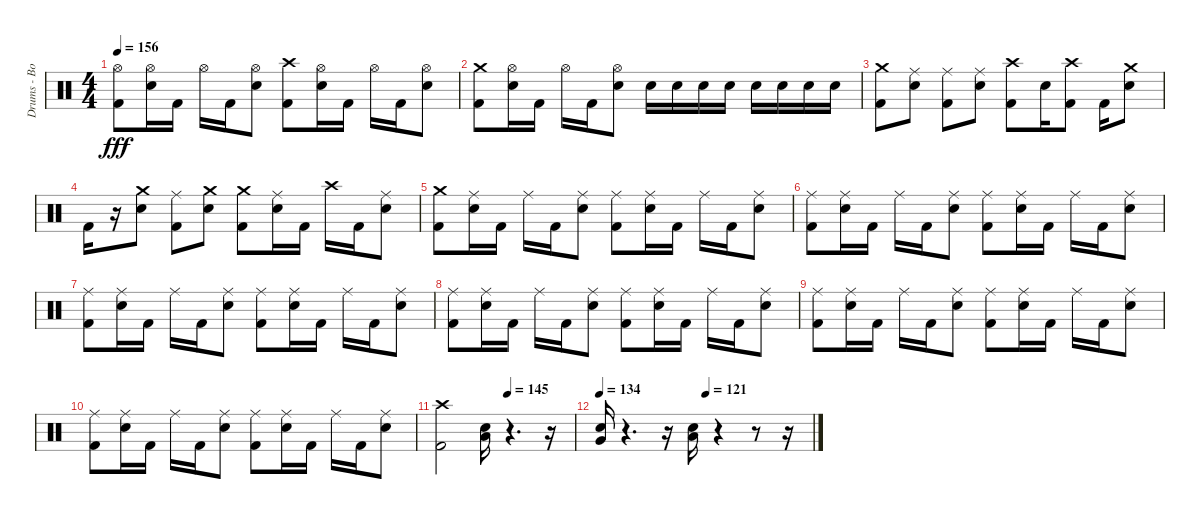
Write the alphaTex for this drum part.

\track ("Drums - Bobby Schayer" "Drums - Bo") {instrument percussion}
\staff {score}
\articulation defaults
\ts (4 4)
\tempo 156
\clef neutral
\ks c
("Hi-Hat (open)" "Kick (hit) 2").8{dy fff} ("Hi-Hat (open)" "Electric Snare (hit)").16 "Kick (hit) 2".16 "Hi-Hat (open)".16 "Kick (hit) 2".16 ("Electric Snare (hit)" "Hi-Hat (open)").8 ("Kick (hit) 2" "Crash high (hit)").8 ("Electric Snare (hit)" "Hi-Hat (open)").16 "Kick (hit) 2".16 "Hi-Hat (open)".16 "Kick (hit) 2".16 ("Electric Snare (hit)" "Hi-Hat (open)").8 |
("Kick (hit) 2" "Crash medium (hit)").8 ("Electric Snare (hit)" "Hi-Hat (open)").16 "Kick (hit) 2".16 "Hi-Hat (open)".16 "Kick (hit) 2".16 ("Electric Snare (hit)" "Hi-Hat (open)").8 "Electric Snare (hit)".16 "Electric Snare (hit)".16 "Electric Snare (hit)".16 "Electric Snare (hit)".16 "Electric Snare (hit)".16 "Electric Snare (hit)".16 "Electric Snare (hit)".16 "Electric Snare (hit)".16 |
("Crash medium (hit)" "Kick (hit) 2").8 ("Electric Snare (hit)" "Ride (middle)").8 ("Kick (hit) 2" "Ride (middle)").8 ("Electric Snare (hit)" "Ride (middle)").8 ("Crash high (hit)" "Kick (hit) 2").8 "Electric Snare (hit)".16 ("Crash high (hit)" "Kick (hit) 2").8 "Kick (hit) 2".16 ("Crash medium (hit)" "Electric Snare (hit)").8 |
"Kick (hit) 2".16 r.16 ("Crash medium (hit)" "Electric Snare (hit)").8 ("Kick (hit) 2" "Ride (middle)").8 ("Crash medium (hit)" "Electric Snare (hit)").8 ("Crash medium (hit)" "Kick (hit) 2").8 ("Electric Snare (hit)" "Ride (middle)").16 "Kick (hit) 2".16 "Crash high (hit)".16 "Kick (hit) 2".16 ("Electric Snare (hit)" "Ride (middle)").8 |
("Crash medium (hit)" "Kick (hit) 2").8 ("Electric Snare (hit)" "Ride (middle)").16 "Kick (hit) 2".16 "Ride (middle)".16 "Kick (hit) 2".16 ("Electric Snare (hit)" "Ride (middle)").8 ("Kick (hit) 2" "Ride (middle)").8 ("Electric Snare (hit)" "Ride (middle)").16 "Kick (hit) 2".16 "Ride (middle)".16 "Kick (hit) 2".16 ("Electric Snare (hit)" "Ride (middle)").8 |
("Kick (hit) 2" "Ride (middle)").8 ("Electric Snare (hit)" "Ride (middle)").16 "Kick (hit) 2".16 "Ride (middle)".16 "Kick (hit) 2".16 ("Electric Snare (hit)" "Ride (middle)").8 ("Kick (hit) 2" "Ride (middle)").8 ("Electric Snare (hit)" "Ride (middle)").16 "Kick (hit) 2".16 "Ride (middle)".16 "Kick (hit) 2".16 ("Electric Snare (hit)" "Ride (middle)").8 |
("Kick (hit) 2" "Ride (middle)").8 ("Electric Snare (hit)" "Ride (middle)").16 "Kick (hit) 2".16 "Ride (middle)".16 "Kick (hit) 2".16 ("Electric Snare (hit)" "Ride (middle)").8 ("Kick (hit) 2" "Ride (middle)").8 ("Electric Snare (hit)" "Ride (middle)").16 "Kick (hit) 2".16 "Ride (middle)".16 "Kick (hit) 2".16 ("Electric Snare (hit)" "Ride (middle)").8 |
("Kick (hit) 2" "Ride (middle)").8 ("Electric Snare (hit)" "Ride (middle)").16 "Kick (hit) 2".16 "Ride (middle)".16 "Kick (hit) 2".16 ("Electric Snare (hit)" "Ride (middle)").8 ("Kick (hit) 2" "Ride (middle)").8 ("Electric Snare (hit)" "Ride (middle)").16 "Kick (hit) 2".16 "Ride (middle)".16 "Kick (hit) 2".16 ("Electric Snare (hit)" "Ride (middle)").8 |
("Kick (hit) 2" "Ride (middle)").8 ("Electric Snare (hit)" "Ride (middle)").16 "Kick (hit) 2".16 "Ride (middle)".16 "Kick (hit) 2".16 ("Electric Snare (hit)" "Ride (middle)").8 ("Kick (hit) 2" "Ride (middle)").8 ("Electric Snare (hit)" "Ride (middle)").16 "Kick (hit) 2".16 "Ride (middle)".16 "Kick (hit) 2".16 ("Electric Snare (hit)" "Ride (middle)").8 |
("Kick (hit) 2" "Ride (middle)").8 ("Electric Snare (hit)" "Ride (middle)").16 "Kick (hit) 2".16 "Ride (middle)".16 "Kick (hit) 2".16 ("Electric Snare (hit)" "Ride (middle)").8 ("Kick (hit) 2" "Ride (middle)").8 ("Electric Snare (hit)" "Ride (middle)").16 "Kick (hit) 2".16 "Ride (middle)".16 "Kick (hit) 2".16 ("Electric Snare (hit)" "Ride (middle)").8 |
\tempo (145 0.5)
("Crash high (hit)" "Kick (hit) 2").2 ("Low Tom (hit)" "Electric Snare (hit)").16 r.4{d} r.16 |
\tempo 134
\tempo (121 0.5)
("Very Low Tom (hit)" "Electric Snare (hit)").16 r.4{d} r.16 ("Low Floor Tom (hit)" "Electric Snare (hit)").16 r.4 r.8 r.16
